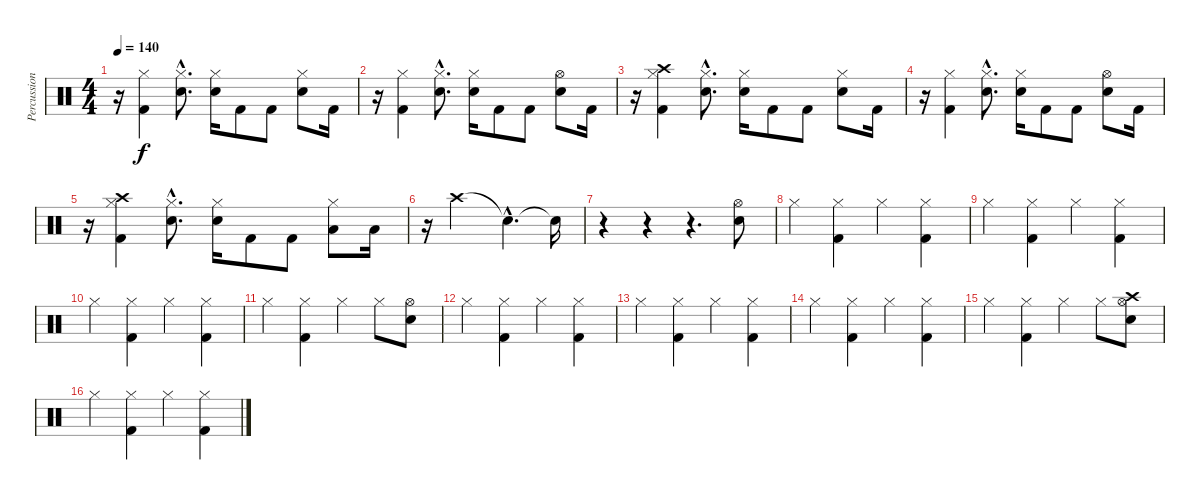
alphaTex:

\track ("Percussion" "Percussion") {instrument percussion}
\staff {score}
\articulation defaults
\ts (4 4)
\tempo 140
\clef neutral
\ks c
r.16{dy f} ("Hi-Hat (closed)" "Kick (hit) 2").4 ("Hi-Hat (closed)"{hac} "Electric Snare (hit)"{hac}).8{d} ("Hi-Hat (closed)" "Electric Snare (hit)").16 "Kick (hit) 2".8 "Kick (hit) 2".8 ("Hi-Hat (closed)" "Electric Snare (hit)").8 "Kick (hit) 2".16 |
r.16 ("Hi-Hat (closed)" "Kick (hit) 2").4 ("Hi-Hat (closed)"{hac} "Electric Snare (hit)"{hac}).8{d} ("Hi-Hat (closed)" "Electric Snare (hit)").16 "Kick (hit) 2".8 "Kick (hit) 2".8 ("Hi-Hat (open)" "Electric Snare (hit)").8 "Kick (hit) 2".16 |
r.16 ("Crash high (hit)" "Hi-Hat (closed)" "Kick (hit) 2").4 ("Hi-Hat (closed)"{hac} "Electric Snare (hit)"{hac}).8{d} ("Hi-Hat (closed)" "Electric Snare (hit)").16 "Kick (hit) 2".8 "Kick (hit) 2".8 ("Hi-Hat (closed)" "Electric Snare (hit)").8 "Kick (hit) 2".16 |
r.16 ("Hi-Hat (closed)" "Kick (hit) 2").4 ("Hi-Hat (closed)"{hac} "Electric Snare (hit)"{hac}).8{d} ("Hi-Hat (closed)" "Electric Snare (hit)").16 "Kick (hit) 2".8 "Kick (hit) 2".8 ("Hi-Hat (open)" "Electric Snare (hit)").8 "Kick (hit) 2".16 |
r.16 ("Crash high (hit)" "Hi-Hat (closed)" "Kick (hit) 2").4 ("Hi-Hat (closed)"{hac} "Electric Snare (hit)"{hac}).8{d} ("Hi-Hat (closed)" "Electric Snare (hit)").16 "Kick (hit) 2".8 "Kick (hit) 2".8 ("Hi-Hat (closed)" "Low Tom (hit)").8 "Low Tom (hit)".16 |
r.16 "Crash high (hit)".2 "Snare (hit)"{hac t}.4{d} "Snare (hit)"{t}.16 |
r.4 r.4 r.4{d} ("Hi-Hat (open)" "Electric Snare (hit)").8 |
"Hi-Hat (closed)".4 ("Hi-Hat (closed)" "Kick (hit) 2").4 "Hi-Hat (closed)".4 ("Hi-Hat (closed)" "Kick (hit) 2").4 |
"Hi-Hat (closed)".4 ("Hi-Hat (closed)" "Kick (hit) 2").4 "Hi-Hat (closed)".4 ("Hi-Hat (closed)" "Kick (hit) 2").4 |
"Hi-Hat (closed)".4 ("Hi-Hat (closed)" "Kick (hit) 2").4 "Hi-Hat (closed)".4 ("Hi-Hat (closed)" "Kick (hit) 2").4 |
"Hi-Hat (closed)".4 ("Hi-Hat (closed)" "Kick (hit) 2").4 "Hi-Hat (closed)".4 "Hi-Hat (closed)".8 ("Hi-Hat (open)" "Electric Snare (hit)").8 |
"Hi-Hat (closed)".4 ("Hi-Hat (closed)" "Kick (hit) 2").4 "Hi-Hat (closed)".4 ("Hi-Hat (closed)" "Kick (hit) 2").4 |
"Hi-Hat (closed)".4 ("Hi-Hat (closed)" "Kick (hit) 2").4 "Hi-Hat (closed)".4 ("Hi-Hat (closed)" "Kick (hit) 2").4 |
"Hi-Hat (closed)".4 ("Hi-Hat (closed)" "Kick (hit) 2").4 "Hi-Hat (closed)".4 ("Hi-Hat (closed)" "Kick (hit) 2").4 |
"Hi-Hat (closed)".4 ("Hi-Hat (closed)" "Kick (hit) 2").4 "Hi-Hat (closed)".4 "Hi-Hat (closed)".8 ("Crash high (hit)" "Hi-Hat (open)" "Electric Snare (hit)").8 |
"Hi-Hat (closed)".4 ("Hi-Hat (closed)" "Kick (hit) 2").4 "Hi-Hat (closed)".4 ("Hi-Hat (closed)" "Kick (hit) 2").4
